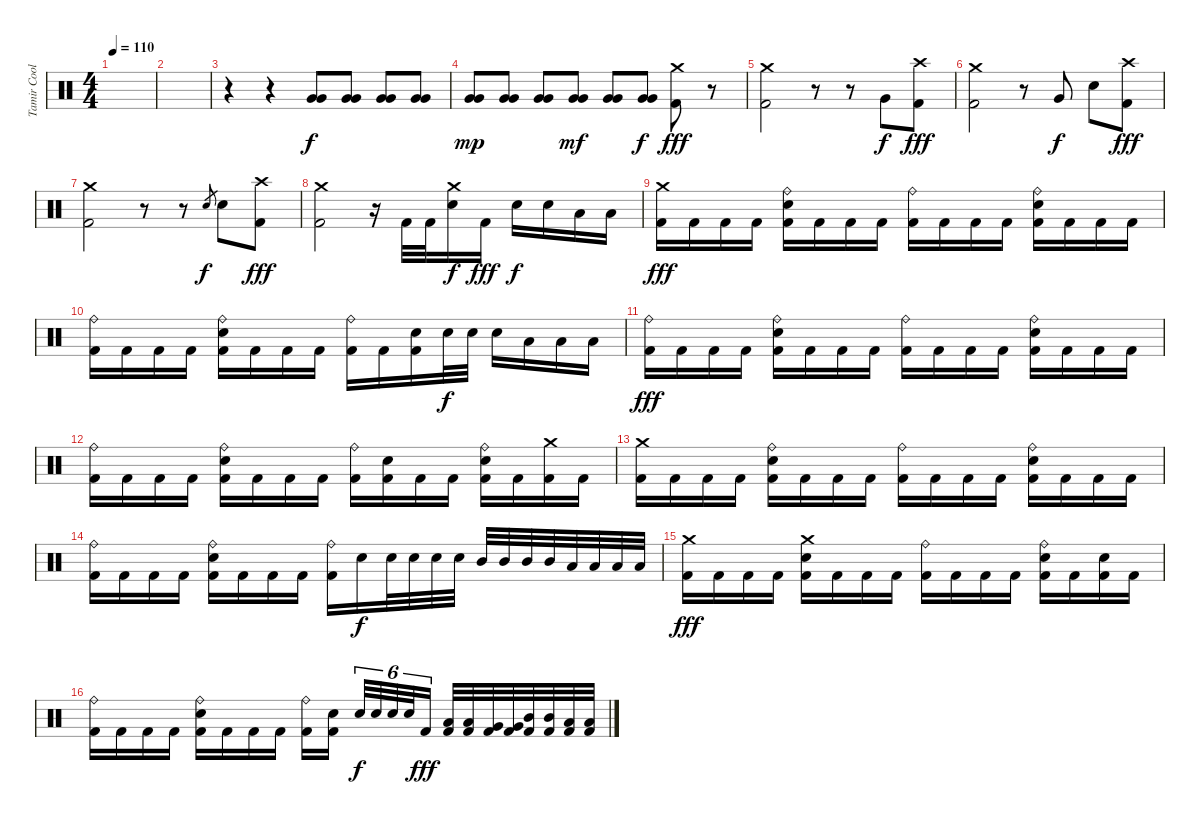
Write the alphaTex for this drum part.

\track ("Tamir Coolberg" "Tamir Cool") {instrument percussion}
\staff {score}
\articulation defaults
\ts (4 4)
\tempo 110
\tempo 100
\tempo 110
\clef neutral
\ks c
|
|
r.4 r.4 ("Very Low Tom (hit)" "Very Low Tom (hit)").8 ("Very Low Tom (hit)" "Very Low Tom (hit)").8 ("Very Low Tom (hit)" "Very Low Tom (hit)").8 ("Very Low Tom (hit)" "Very Low Tom (hit)").8 |
("Very Low Tom (hit)" "Very Low Tom (hit)").8{dy mp} ("Very Low Tom (hit)" "Very Low Tom (hit)").8 ("Very Low Tom (hit)" "Very Low Tom (hit)").8 ("Very Low Tom (hit)" "Very Low Tom (hit)").8{dy mf} ("Very Low Tom (hit)" "Very Low Tom (hit)").8 ("Very Low Tom (hit)" "Very Low Tom (hit)").8{dy f} ("Crash medium (hit)" "Kick (hit) 2").8{dy fff} r.8 |
("Crash medium (hit)" "Kick (hit) 2").2 r.8 r.8 "Very Low Tom (hit)".8{dy f} ("Crash high (hit)" "Kick (hit) 2").8{dy fff} |
("Crash medium (hit)" "Kick (hit) 2").2 r.8 "Very Low Tom (hit)".8{dy f} "Electric Snare (hit)".8 ("Crash high (hit)" "Kick (hit) 2").8{dy fff} |
("Crash medium (hit)" "Kick (hit) 2").2 r.8 r.8 "Electric Snare (hit)".8{gr dy f} "Electric Snare (hit)".8 ("Crash high (hit)" "Kick (hit) 2").8{dy fff} |
("Crash medium (hit)" "Kick (hit) 2").2 r.16 "Kick (hit) 2".32 "Kick (hit) 2".32 ("Crash medium (hit)" "Electric Snare (hit)").16{dy f} "Kick (hit) 2".16{dy fff} "Electric Snare (hit)".16{dy f} "Electric Snare (hit)".16 "Low Tom (hit)".16 "Low Tom (hit)".16 |
("Crash medium (hit)" "Kick (hit) 2").16{dy fff} "Kick (hit) 2".16 "Kick (hit) 2".16 "Kick (hit) 2".16 ("Ride (bell)" "Electric Snare (hit)" "Kick (hit) 2").16 "Kick (hit) 2".16 "Kick (hit) 2".16 "Kick (hit) 2".16 ("Ride (bell)" "Kick (hit) 2").16 "Kick (hit) 2".16 "Kick (hit) 2".16 "Kick (hit) 2".16 ("Ride (bell)" "Electric Snare (hit)" "Kick (hit) 2").16 "Kick (hit) 2".16 "Kick (hit) 2".16 "Kick (hit) 2".16 |
("Ride (bell)" "Kick (hit) 2").16 "Kick (hit) 2".16 "Kick (hit) 2".16 "Kick (hit) 2".16 ("Ride (bell)" "Electric Snare (hit)" "Kick (hit) 2").16 "Kick (hit) 2".16 "Kick (hit) 2".16 "Kick (hit) 2".16 ("Ride (bell)" "Kick (hit) 2").16 "Kick (hit) 2".16 ("Electric Snare (hit)" "Kick (hit) 2").16 "Electric Snare (hit)".32{dy f} "Electric Snare (hit)".32 "Electric Snare (hit)".16 "Low Tom (hit)".16 "Low Tom (hit)".16 "Low Tom (hit)".16 |
("Ride (bell)" "Kick (hit) 2").16{dy fff} "Kick (hit) 2".16 "Kick (hit) 2".16 "Kick (hit) 2".16 ("Ride (bell)" "Electric Snare (hit)" "Kick (hit) 2").16 "Kick (hit) 2".16 "Kick (hit) 2".16 "Kick (hit) 2".16 ("Ride (bell)" "Kick (hit) 2").16 "Kick (hit) 2".16 "Kick (hit) 2".16 "Kick (hit) 2".16 ("Ride (bell)" "Electric Snare (hit)" "Kick (hit) 2").16 "Kick (hit) 2".16 "Kick (hit) 2".16 "Kick (hit) 2".16 |
("Ride (bell)" "Kick (hit) 2").16 "Kick (hit) 2".16 "Kick (hit) 2".16 "Kick (hit) 2".16 ("Ride (bell)" "Electric Snare (hit)" "Kick (hit) 2").16 "Kick (hit) 2".16 "Kick (hit) 2".16 "Kick (hit) 2".16 ("Ride (bell)" "Kick (hit) 2").16 ("Electric Snare (hit)" "Kick (hit) 2").16 "Kick (hit) 2".16 "Kick (hit) 2".16 ("Ride (bell)" "Electric Snare (hit)" "Kick (hit) 2").16 "Kick (hit) 2".16 ("Crash medium (hit)" "Kick (hit) 2").16 "Kick (hit) 2".16 |
("Crash medium (hit)" "Kick (hit) 2").16 "Kick (hit) 2".16 "Kick (hit) 2".16 "Kick (hit) 2".16 ("Ride (bell)" "Electric Snare (hit)" "Kick (hit) 2").16 "Kick (hit) 2".16 "Kick (hit) 2".16 "Kick (hit) 2".16 ("Ride (bell)" "Kick (hit) 2").16 "Kick (hit) 2".16 "Kick (hit) 2".16 "Kick (hit) 2".16 ("Ride (bell)" "Electric Snare (hit)" "Kick (hit) 2").16 "Kick (hit) 2".16 "Kick (hit) 2".16 "Kick (hit) 2".16 |
("Ride (bell)" "Kick (hit) 2").16 "Kick (hit) 2".16 "Kick (hit) 2".16 "Kick (hit) 2".16 ("Ride (bell)" "Electric Snare (hit)" "Kick (hit) 2").16 "Kick (hit) 2".16 "Kick (hit) 2".16 "Kick (hit) 2".16 ("Ride (bell)" "Kick (hit) 2").16 "Electric Snare (hit)".16{dy f} "Electric Snare (hit)".32 "Electric Snare (hit)".32 "Electric Snare (hit)".32 "Electric Snare (hit)".32 "Mid Tom (hit)".32 "Mid Tom (hit)".32 "Mid Tom (hit)".32 "Mid Tom (hit)".32 "Low Tom (hit)".32 "Low Tom (hit)".32 "Low Tom (hit)".32 "Low Tom (hit)".32 |
("Crash medium (hit)" "Kick (hit) 2").16{dy fff} "Kick (hit) 2".16 "Kick (hit) 2".16 "Kick (hit) 2".16 ("Crash medium (hit)" "Electric Snare (hit)" "Kick (hit) 2").16 "Kick (hit) 2".16 "Kick (hit) 2".16 "Kick (hit) 2".16 ("Ride (bell)" "Kick (hit) 2").16 "Kick (hit) 2".16 "Kick (hit) 2".16 "Kick (hit) 2".16 ("Ride (bell)" "Electric Snare (hit)" "Kick (hit) 2").16 "Kick (hit) 2".16 ("Electric Snare (hit)" "Kick (hit) 2").16 "Kick (hit) 2".16 |
("Ride (bell)" "Kick (hit) 2").16 "Kick (hit) 2".16 "Kick (hit) 2".16 "Kick (hit) 2".16 ("Ride (bell)" "Electric Snare (hit)" "Kick (hit) 2").16 "Kick (hit) 2".16 "Kick (hit) 2".16 "Kick (hit) 2".16 ("Ride (bell)" "Kick (hit) 2").16 ("Electric Snare (hit)" "Kick (hit) 2").16 "Electric Snare (hit)".32{tu (6 4) dy f} "Electric Snare (hit)".32{tu (6 4)} "Electric Snare (hit)".32{tu (6 4)} "Electric Snare (hit)".32{tu (6 4)} "Kick (hit) 2".16{tu (6 4) dy fff} ("Low Tom (hit)" "Kick (hit) 2").32 ("Low Tom (hit)" "Kick (hit) 2").32 ("Very Low Tom (hit)" "Kick (hit) 2").32 ("Very Low Tom (hit)" "Kick (hit) 2").32 ("Mid Tom (hit)" "Kick (hit) 2").32 ("Mid Tom (hit)" "Kick (hit) 2").32 ("Low Tom (hit)" "Kick (hit) 2").32 ("Low Tom (hit)" "Kick (hit) 2").32
